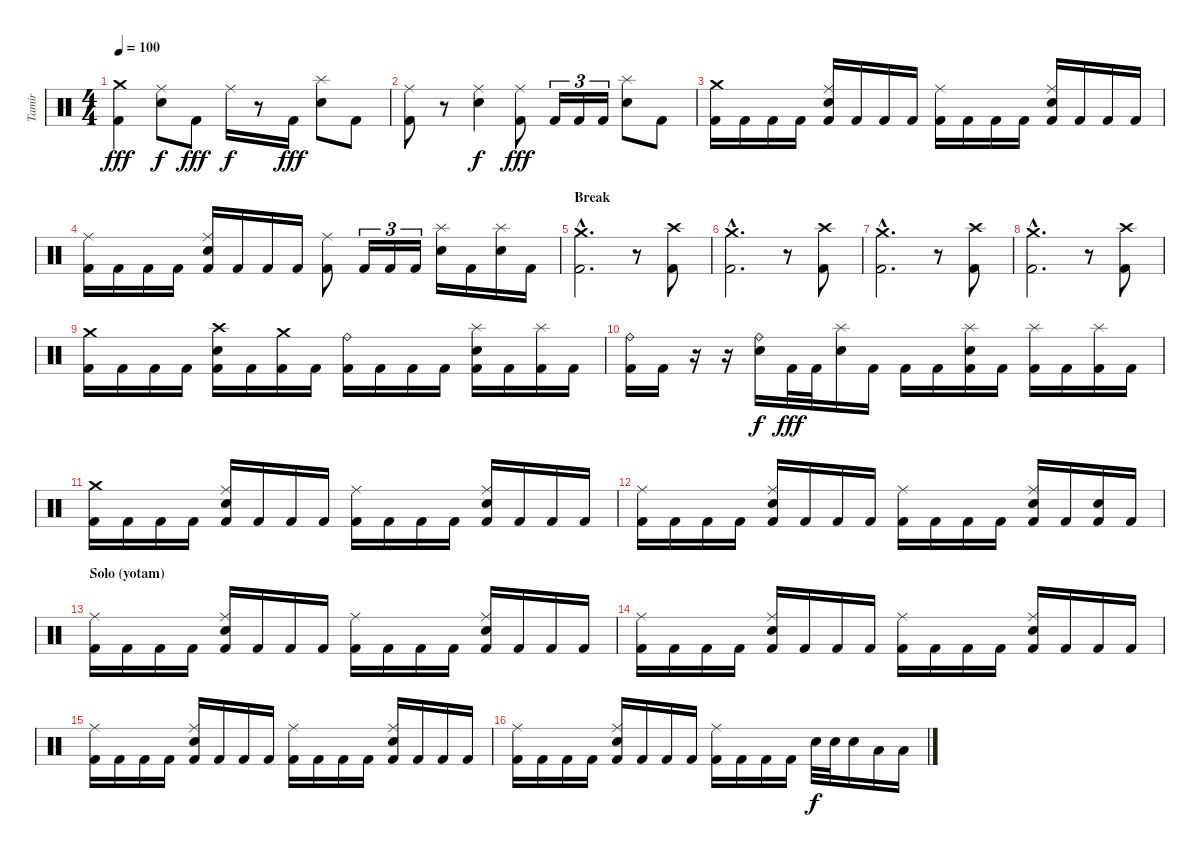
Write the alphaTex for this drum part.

\track ("Tamir" "Tamir") {instrument percussion}
\staff {score}
\articulation defaults
\ts (4 4)
\tempo 100
\clef neutral
\ks c
("Crash medium (hit)" "Kick (hit) 2").4{dy fff} ("Ride (middle)" "Electric Snare (hit)").8{dy f} "Kick (hit) 2".8{dy fff} "Ride (middle)".16{dy f} r.8 "Kick (hit) 2".16{dy fff} ("Splash (hit)" "Electric Snare (hit)").8 "Kick (hit) 2".8 |
("Ride (middle)" "Kick (hit) 2").8 r.8 ("Ride (middle)" "Electric Snare (hit)").4{dy f} ("Ride (middle)" "Kick (hit) 2").8{dy fff} "Kick (hit) 2".16{tu (3 2)} "Kick (hit) 2".16{tu (3 2)} "Kick (hit) 2".16{tu (3 2)} ("Splash (hit)" "Electric Snare (hit)").8 "Kick (hit) 2".8 |
("Crash medium (hit)" "Kick (hit) 2").16 "Kick (hit) 2".16 "Kick (hit) 2".16 "Kick (hit) 2".16 ("Ride (middle)" "Electric Snare (hit)" "Kick (hit) 2").16 "Kick (hit) 2".16 "Kick (hit) 2".16 "Kick (hit) 2".16 ("Ride (middle)" "Kick (hit) 2").16 "Kick (hit) 2".16 "Kick (hit) 2".16 "Kick (hit) 2".16 ("Ride (middle)" "Electric Snare (hit)" "Kick (hit) 2").16 "Kick (hit) 2".16 "Kick (hit) 2".16 "Kick (hit) 2".16 |
("Ride (middle)" "Kick (hit) 2").16 "Kick (hit) 2".16 "Kick (hit) 2".16 "Kick (hit) 2".16 ("Ride (middle)" "Electric Snare (hit)" "Kick (hit) 2").16 "Kick (hit) 2".16 "Kick (hit) 2".16 "Kick (hit) 2".16 ("Ride (middle)" "Kick (hit) 2").8 "Kick (hit) 2".16{tu (3 2)} "Kick (hit) 2".16{tu (3 2)} "Kick (hit) 2".16{tu (3 2)} ("Splash (hit)" "Electric Snare (hit)").16 "Kick (hit) 2".16 ("Splash (hit)" "Electric Snare (hit)").16 "Kick (hit) 2".16 |
\section ("" "Break")
("Crash medium (hit)"{hac} "Kick (hit) 2"{hac}).2{d} r.8 ("Crash high (hit)" "Kick (hit) 2").8 |
("Crash medium (hit)"{hac} "Kick (hit) 2"{hac}).2{d} r.8 ("Crash high (hit)" "Kick (hit) 2").8 |
("Crash medium (hit)"{hac} "Kick (hit) 2"{hac}).2{d} r.8 ("Crash high (hit)" "Kick (hit) 2").8 |
("Crash medium (hit)"{hac} "Kick (hit) 2"{hac}).2{d} r.8 ("Crash high (hit)" "Kick (hit) 2").8 |
("Crash medium (hit)" "Kick (hit) 2").16 "Kick (hit) 2".16 "Kick (hit) 2".16 "Kick (hit) 2".16 ("Crash high (hit)" "Electric Snare (hit)" "Kick (hit) 2").16 "Kick (hit) 2".16 ("Crash medium (hit)" "Kick (hit) 2").16 "Kick (hit) 2".16 ("Ride (bell)" "Kick (hit) 2").16 "Kick (hit) 2".16 "Kick (hit) 2".16 "Kick (hit) 2".16 ("Splash (hit)" "Electric Snare (hit)" "Kick (hit) 2").16 "Kick (hit) 2".16 ("Splash (hit)" "Kick (hit) 2").16 "Kick (hit) 2".16 |
("Ride (bell)" "Kick (hit) 2").16 "Kick (hit) 2".16 r.16 r.16 ("Ride (bell)" "Electric Snare (hit)").16{dy f} "Kick (hit) 2".32{dy fff} "Kick (hit) 2".32 ("Splash (hit)" "Electric Snare (hit)").16 "Kick (hit) 2".16 "Kick (hit) 2".16 "Kick (hit) 2".16 ("Splash (hit)" "Electric Snare (hit)" "Kick (hit) 2").16 "Kick (hit) 2".16 ("Splash (hit)" "Kick (hit) 2").16 "Kick (hit) 2".16 ("Splash (hit)" "Kick (hit) 2").16 "Kick (hit) 2".16 |
("Crash medium (hit)" "Kick (hit) 2").16 "Kick (hit) 2".16 "Kick (hit) 2".16 "Kick (hit) 2".16 ("Ride (middle)" "Electric Snare (hit)" "Kick (hit) 2").16 "Kick (hit) 2".16 "Kick (hit) 2".16 "Kick (hit) 2".16 ("Ride (middle)" "Kick (hit) 2").16 "Kick (hit) 2".16 "Kick (hit) 2".16 "Kick (hit) 2".16 ("Ride (middle)" "Electric Snare (hit)" "Kick (hit) 2").16 "Kick (hit) 2".16 "Kick (hit) 2".16 "Kick (hit) 2".16 |
("Ride (middle)" "Kick (hit) 2").16 "Kick (hit) 2".16 "Kick (hit) 2".16 "Kick (hit) 2".16 ("Ride (middle)" "Electric Snare (hit)" "Kick (hit) 2").16 "Kick (hit) 2".16 "Kick (hit) 2".16 "Kick (hit) 2".16 ("Ride (middle)" "Kick (hit) 2").16 "Kick (hit) 2".16 "Kick (hit) 2".16 "Kick (hit) 2".16 ("Ride (middle)" "Electric Snare (hit)" "Kick (hit) 2").16 "Kick (hit) 2".16 ("Electric Snare (hit)" "Kick (hit) 2").16 "Kick (hit) 2".16 |
\section ("" "Solo (yotam)")
("Ride (middle)" "Kick (hit) 2").16 "Kick (hit) 2".16 "Kick (hit) 2".16 "Kick (hit) 2".16 ("Ride (middle)" "Electric Snare (hit)" "Kick (hit) 2").16 "Kick (hit) 2".16 "Kick (hit) 2".16 "Kick (hit) 2".16 ("Ride (middle)" "Kick (hit) 2").16 "Kick (hit) 2".16 "Kick (hit) 2".16 "Kick (hit) 2".16 ("Ride (middle)" "Electric Snare (hit)" "Kick (hit) 2").16 "Kick (hit) 2".16 "Kick (hit) 2".16 "Kick (hit) 2".16 |
("Ride (middle)" "Kick (hit) 2").16 "Kick (hit) 2".16 "Kick (hit) 2".16 "Kick (hit) 2".16 ("Ride (middle)" "Electric Snare (hit)" "Kick (hit) 2").16 "Kick (hit) 2".16 "Kick (hit) 2".16 "Kick (hit) 2".16 ("Ride (middle)" "Kick (hit) 2").16 "Kick (hit) 2".16 "Kick (hit) 2".16 "Kick (hit) 2".16 ("Ride (middle)" "Electric Snare (hit)" "Kick (hit) 2").16 "Kick (hit) 2".16 "Kick (hit) 2".16 "Kick (hit) 2".16 |
("Ride (middle)" "Kick (hit) 2").16 "Kick (hit) 2".16 "Kick (hit) 2".16 "Kick (hit) 2".16 ("Ride (middle)" "Electric Snare (hit)" "Kick (hit) 2").16 "Kick (hit) 2".16 "Kick (hit) 2".16 "Kick (hit) 2".16 ("Ride (middle)" "Kick (hit) 2").16 "Kick (hit) 2".16 "Kick (hit) 2".16 "Kick (hit) 2".16 ("Ride (middle)" "Electric Snare (hit)" "Kick (hit) 2").16 "Kick (hit) 2".16 "Kick (hit) 2".16 "Kick (hit) 2".16 |
("Ride (middle)" "Kick (hit) 2").16 "Kick (hit) 2".16 "Kick (hit) 2".16 "Kick (hit) 2".16 ("Ride (middle)" "Electric Snare (hit)" "Kick (hit) 2").16 "Kick (hit) 2".16 "Kick (hit) 2".16 "Kick (hit) 2".16 ("Ride (middle)" "Kick (hit) 2").16 "Kick (hit) 2".16 "Kick (hit) 2".16 "Kick (hit) 2".16 "Electric Snare (hit)".32{dy f} "Electric Snare (hit)".32 "Electric Snare (hit)".16 "Low Tom (hit)".16 "Low Tom (hit)".16
